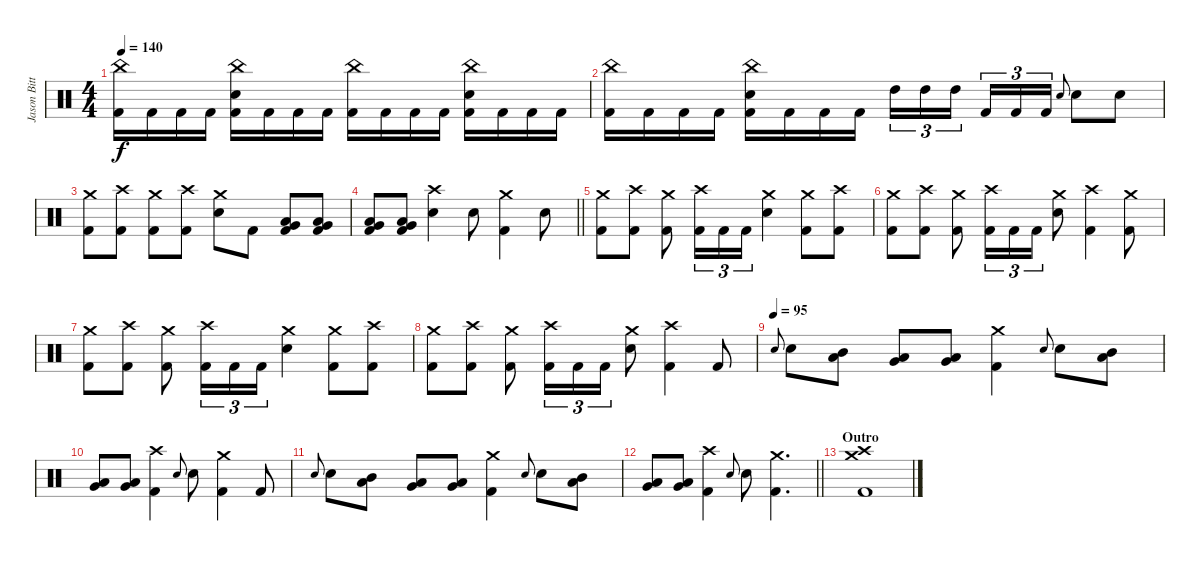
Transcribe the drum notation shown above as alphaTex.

\track ("Jason Bittner" "Jason Bitt") {instrument percussion}
\staff {score}
\articulation defaults
\ts (4 4)
\tempo 140
\clef neutral
\ks c
("China (hit)" "Kick (hit) 2").16{dy f} "Kick (hit) 2".16 "Kick (hit) 2".16 "Kick (hit) 2".16 ("China (hit)" "Electric Snare (hit)" "Kick (hit) 2").16 "Kick (hit) 2".16 "Kick (hit) 2".16 "Kick (hit) 2".16 ("China (hit)" "Kick (hit) 2").16 "Kick (hit) 2".16 "Kick (hit) 2".16 "Kick (hit) 2".16 ("China (hit)" "Electric Snare (hit)" "Kick (hit) 2").16 "Kick (hit) 2".16 "Kick (hit) 2".16 "Kick (hit) 2".16 |
("China (hit)" "Kick (hit) 2").16 "Kick (hit) 2".16 "Kick (hit) 2".16 "Kick (hit) 2".16 ("China (hit)" "Electric Snare (hit)" "Kick (hit) 2").16 "Kick (hit) 2".16 "Kick (hit) 2".16 "Kick (hit) 2".16 "High Tom (hit)".16{tu (3 2)} "High Tom (hit)".16{tu (3 2)} "High Tom (hit)".16{tu (3 2) beam splitsecondary} "Kick (hit) 2".16{tu (3 2)} "Kick (hit) 2".16{tu (3 2)} "Kick (hit) 2".16{tu (3 2)} "Electric Snare (hit)".8{gr onbeat} "Electric Snare (hit)".8 "Electric Snare (hit)".8 |
("Crash medium (hit)" "Kick (hit) 2").8 ("Crash high (hit)" "Kick (hit) 2").8 ("Crash medium (hit)" "Kick (hit) 2").8 ("Crash high (hit)" "Kick (hit) 2").8 ("Crash medium (hit)" "Electric Snare (hit)").8 "Kick (hit) 2".8 ("Low Tom (hit)" "Very Low Tom (hit)" "Kick (hit) 2").8 ("Low Tom (hit)" "Very Low Tom (hit)" "Kick (hit) 2").8 |
\barLineRight lightlight
("Low Tom (hit)" "Very Low Tom (hit)" "Kick (hit) 2").8 ("Low Tom (hit)" "Very Low Tom (hit)" "Kick (hit) 2").8 ("Crash high (hit)" "Electric Snare (hit)").4 "Electric Snare (hit)".8 ("Crash medium (hit)" "Kick (hit) 2").4 "Electric Snare (hit)".8 |
("Crash medium (hit)" "Kick (hit) 2").8 ("Crash high (hit)" "Kick (hit) 2").8 ("Crash medium (hit)" "Kick (hit) 2").8 ("Crash high (hit)" "Kick (hit) 2").16{tu (3 2)} "Kick (hit) 2".16{tu (3 2)} "Kick (hit) 2".16{tu (3 2)} ("Crash medium (hit)" "Electric Snare (hit)").4 ("Crash medium (hit)" "Kick (hit) 2").8 ("Crash high (hit)" "Kick (hit) 2").8 |
("Crash medium (hit)" "Kick (hit) 2").8 ("Crash high (hit)" "Kick (hit) 2").8 ("Crash medium (hit)" "Kick (hit) 2").8 ("Crash high (hit)" "Kick (hit) 2").16{tu (3 2)} "Kick (hit) 2".16{tu (3 2)} "Kick (hit) 2".16{tu (3 2)} ("Crash medium (hit)" "Electric Snare (hit)").8 ("Crash high (hit)" "Kick (hit) 2").4 ("Crash medium (hit)" "Kick (hit) 2").8 |
("Crash medium (hit)" "Kick (hit) 2").8 ("Crash high (hit)" "Kick (hit) 2").8 ("Crash medium (hit)" "Kick (hit) 2").8 ("Crash high (hit)" "Kick (hit) 2").16{tu (3 2)} "Kick (hit) 2".16{tu (3 2)} "Kick (hit) 2".16{tu (3 2)} ("Crash medium (hit)" "Electric Snare (hit)").4 ("Crash medium (hit)" "Kick (hit) 2").8 ("Crash high (hit)" "Kick (hit) 2").8 |
("Crash medium (hit)" "Kick (hit) 2").8 ("Crash high (hit)" "Kick (hit) 2").8 ("Crash medium (hit)" "Kick (hit) 2").8 ("Crash high (hit)" "Kick (hit) 2").16{tu (3 2)} "Kick (hit) 2".16{tu (3 2)} "Kick (hit) 2".16{tu (3 2)} ("Crash medium (hit)" "Electric Snare (hit)").8 ("Crash high (hit)" "Kick (hit) 2").4 "Kick (hit) 2".8 |
\tempo (95)
"Electric Snare (hit)".8{gr onbeat} "Electric Snare (hit)".8 ("Mid Tom (hit)" "Low Tom (hit)").8 ("Low Tom (hit)" "Very Low Tom (hit)").8 ("Very Low Tom (hit)" "Low Floor Tom (hit)").8 ("Crash medium (hit)" "Kick (hit) 2").4 "Electric Snare (hit)".8{gr onbeat} "Electric Snare (hit)".8 ("Mid Tom (hit)" "Low Tom (hit)").8 |
("Low Tom (hit)" "Very Low Tom (hit)").8 ("Very Low Tom (hit)" "Low Floor Tom (hit)").8 ("Crash high (hit)" "Kick (hit) 2").4 "Electric Snare (hit)".8{gr onbeat} "Electric Snare (hit)".8 ("Crash medium (hit)" "Kick (hit) 2").4 "Kick (hit) 2".8 |
"Electric Snare (hit)".8{gr onbeat} "Electric Snare (hit)".8 ("Mid Tom (hit)" "Low Tom (hit)").8 ("Low Tom (hit)" "Very Low Tom (hit)").8 ("Very Low Tom (hit)" "Low Floor Tom (hit)").8 ("Crash medium (hit)" "Kick (hit) 2").4 "Electric Snare (hit)".8{gr onbeat} "Electric Snare (hit)".8 ("Mid Tom (hit)" "Low Tom (hit)").8 |
\barLineRight lightlight
("Low Tom (hit)" "Very Low Tom (hit)").8 ("Very Low Tom (hit)" "Low Floor Tom (hit)").8 ("Crash high (hit)" "Kick (hit) 2").4 "Electric Snare (hit)".8{gr onbeat} "Electric Snare (hit)".8 ("Crash medium (hit)" "Kick (hit) 2").4{d} |
\section ("" "Outro")
("Crash medium (hit)" "Crash high (hit)" "Kick (hit) 2").1
